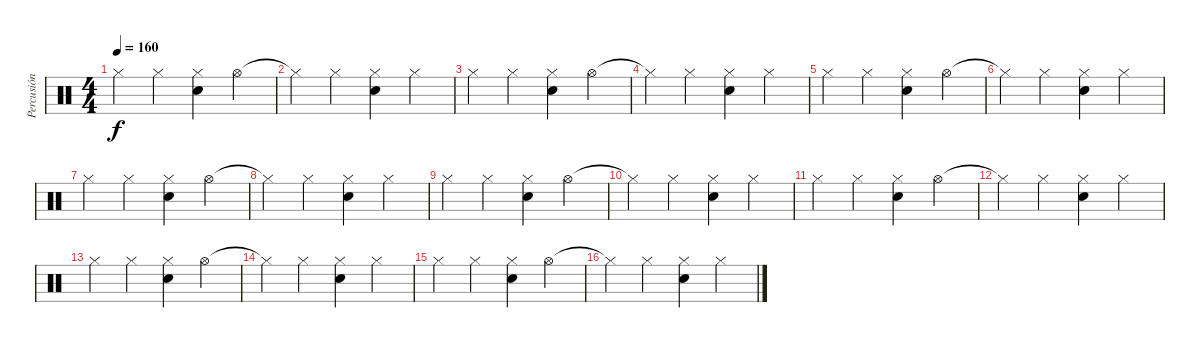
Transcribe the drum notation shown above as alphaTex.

\track ("Percusión" "Percusión") {instrument percussion}
\staff {score}
\articulation defaults
\ts (4 4)
\tempo 160
\clef neutral
\ks c "Hi-Hat (closed)".4{dy f} "Hi-Hat (closed)".4
("Electric Snare (hit)" "Hi-Hat (closed)").4 "Hi-Hat (open)".4 |
"Hi-Hat (closed)"{t}.4 "Hi-Hat (closed)".4 ("Electric Snare (hit)" "Hi-Hat (closed)").4 "Hi-Hat (closed)".4 |
"Hi-Hat (closed)".4 "Hi-Hat (closed)".4 ("Electric Snare (hit)" "Hi-Hat (closed)").4 "Hi-Hat (open)".4 |
"Hi-Hat (closed)"{t}.4 "Hi-Hat (closed)".4 ("Electric Snare (hit)" "Hi-Hat (closed)").4 "Hi-Hat (closed)".4 |
"Hi-Hat (closed)".4 "Hi-Hat (closed)".4 ("Electric Snare (hit)" "Hi-Hat (closed)").4 "Hi-Hat (open)".4 |
"Hi-Hat (closed)"{t}.4 "Hi-Hat (closed)".4 ("Electric Snare (hit)" "Hi-Hat (closed)").4 "Hi-Hat (closed)".4 |
"Hi-Hat (closed)".4 "Hi-Hat (closed)".4 ("Electric Snare (hit)" "Hi-Hat (closed)").4 "Hi-Hat (open)".4 |
"Hi-Hat (closed)"{t}.4 "Hi-Hat (closed)".4 ("Electric Snare (hit)" "Hi-Hat (closed)").4 "Hi-Hat (closed)".4 |
"Hi-Hat (closed)".4 "Hi-Hat (closed)".4 ("Electric Snare (hit)" "Hi-Hat (closed)").4 "Hi-Hat (open)".4 |
"Hi-Hat (closed)"{t}.4 "Hi-Hat (closed)".4 ("Electric Snare (hit)" "Hi-Hat (closed)").4 "Hi-Hat (closed)".4 |
"Hi-Hat (closed)".4 "Hi-Hat (closed)".4 ("Electric Snare (hit)" "Hi-Hat (closed)").4 "Hi-Hat (open)".4 |
"Hi-Hat (closed)"{t}.4 "Hi-Hat (closed)".4 ("Electric Snare (hit)" "Hi-Hat (closed)").4 "Hi-Hat (closed)".4 |
"Hi-Hat (closed)".4 "Hi-Hat (closed)".4 ("Electric Snare (hit)" "Hi-Hat (closed)").4 "Hi-Hat (open)".4 |
"Hi-Hat (closed)"{t}.4 "Hi-Hat (closed)".4 ("Electric Snare (hit)" "Hi-Hat (closed)").4 "Hi-Hat (closed)".4 |
"Hi-Hat (closed)".4 "Hi-Hat (closed)".4 ("Electric Snare (hit)" "Hi-Hat (closed)").4 "Hi-Hat (open)".4 |
"Hi-Hat (closed)"{t}.4 "Hi-Hat (closed)".4 ("Electric Snare (hit)" "Hi-Hat (closed)").4 "Hi-Hat (closed)".4
